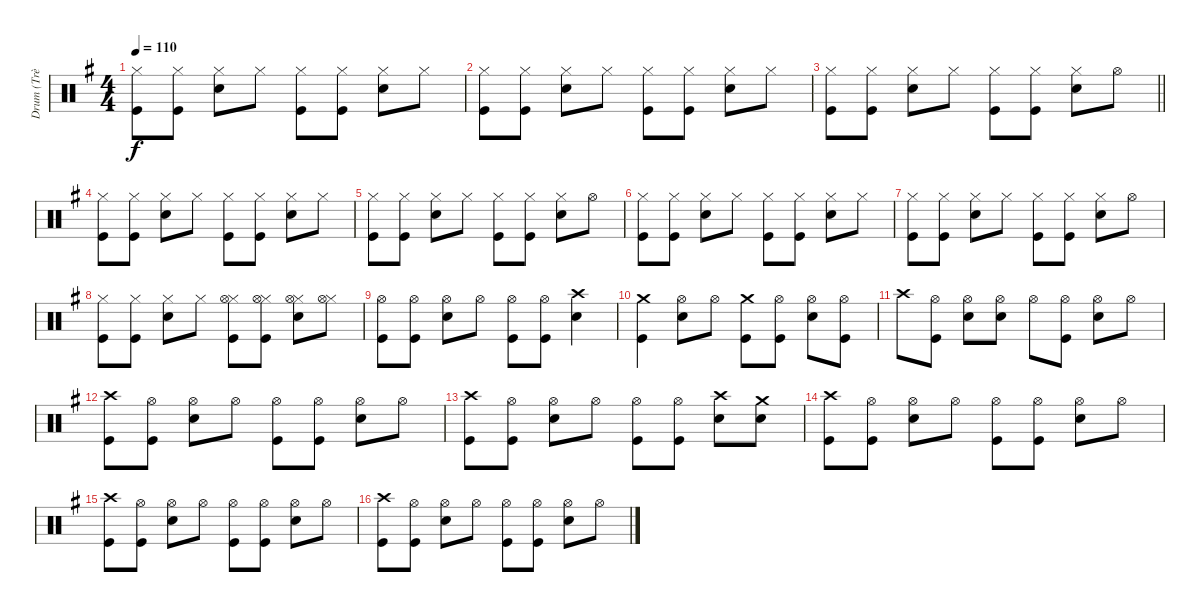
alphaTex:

\track ("Drum (Trè Cool)" "Drum (Trè ") {instrument percussion}
\staff {score}
\articulation defaults
\ts (4 4)
\tempo 110
\clef neutral
\ks g
("Hi-Hat (closed)" "Kick (hit)").8{dy f} ("Hi-Hat (closed)" "Kick (hit)").8 ("Hi-Hat (closed)" "Snare (hit) 2").8 "Hi-Hat (closed)".8 ("Hi-Hat (closed)" "Kick (hit)").8 ("Hi-Hat (closed)" "Kick (hit)").8 ("Hi-Hat (closed)" "Snare (hit) 2").8 "Hi-Hat (closed)".8 |
("Hi-Hat (closed)" "Kick (hit)").8 ("Hi-Hat (closed)" "Kick (hit)").8 ("Hi-Hat (closed)" "Snare (hit) 2").8 "Hi-Hat (closed)".8 ("Hi-Hat (closed)" "Kick (hit)").8 ("Hi-Hat (closed)" "Kick (hit)").8 ("Hi-Hat (closed)" "Snare (hit) 2").8 "Hi-Hat (closed)".8 |
\barLineRight lightlight
("Hi-Hat (closed)" "Kick (hit)").8 ("Hi-Hat (closed)" "Kick (hit)").8 ("Hi-Hat (closed)" "Snare (hit) 2").8 "Hi-Hat (closed)".8 ("Hi-Hat (closed)" "Kick (hit)").8 ("Hi-Hat (closed)" "Kick (hit)").8 ("Hi-Hat (closed)" "Snare (hit) 2").8 "Hi-Hat (open)".8 |
("Hi-Hat (closed)" "Kick (hit)").8 ("Hi-Hat (closed)" "Kick (hit)").8 ("Hi-Hat (closed)" "Snare (hit) 2").8 "Hi-Hat (closed)".8 ("Hi-Hat (closed)" "Kick (hit)").8 ("Hi-Hat (closed)" "Kick (hit)").8 ("Hi-Hat (closed)" "Snare (hit) 2").8 "Hi-Hat (closed)".8 |
("Hi-Hat (closed)" "Kick (hit)").8 ("Kick (hit)" "Hi-Hat (closed)").8 ("Hi-Hat (closed)" "Snare (hit) 2").8 "Hi-Hat (closed)".8 ("Hi-Hat (closed)" "Kick (hit)").8 ("Hi-Hat (closed)" "Kick (hit)").8 ("Hi-Hat (closed)" "Snare (hit) 2").8 "Hi-Hat (open)".8 |
("Hi-Hat (closed)" "Kick (hit)").8 ("Hi-Hat (closed)" "Kick (hit)").8 ("Hi-Hat (closed)" "Snare (hit) 2").8 "Hi-Hat (closed)".8 ("Hi-Hat (closed)" "Kick (hit)").8 ("Hi-Hat (closed)" "Kick (hit)").8 ("Hi-Hat (closed)" "Snare (hit) 2").8 "Hi-Hat (closed)".8 |
("Hi-Hat (closed)" "Kick (hit)").8 ("Hi-Hat (closed)" "Kick (hit)").8 ("Hi-Hat (closed)" "Snare (hit) 2").8 "Hi-Hat (closed)".8 ("Hi-Hat (closed)" "Kick (hit)").8 ("Hi-Hat (closed)" "Kick (hit)").8 ("Hi-Hat (closed)" "Snare (hit) 2").8 "Hi-Hat (open)".8 |
("Kick (hit)" "Hi-Hat (closed)").8 ("Hi-Hat (closed)" "Kick (hit)").8 ("Hi-Hat (closed)" "Snare (hit) 2").8 "Hi-Hat (closed)".8 ("Hi-Hat (closed)" "Kick (hit)" "Hi-Hat (open)").8 ("Hi-Hat (closed)" "Kick (hit)" "Hi-Hat (open)").8 ("Hi-Hat (closed)" "Snare (hit) 2" "Hi-Hat (open)").8 ("Hi-Hat (closed)" "Hi-Hat (open)").8 |
("Hi-Hat (open)" "Kick (hit)").8 ("Hi-Hat (open)" "Kick (hit)").8 ("Hi-Hat (open)" "Snare (hit) 2").8 "Hi-Hat (open)".8 ("Hi-Hat (open)" "Kick (hit)").8 ("Hi-Hat (open)" "Kick (hit)").8 ("Crash high (hit)" "Snare (hit) 2").4 |
("Crash medium (hit)" "Kick (hit)").4 ("Hi-Hat (open)" "Snare (hit) 2").8 "Hi-Hat (open)".8 ("Crash medium (hit)" "Kick (hit)").8 ("Hi-Hat (open)" "Kick (hit)").8 ("Hi-Hat (open)" "Snare (hit) 2").8 ("Hi-Hat (open)" "Kick (hit)").8 |
"Crash high (hit)".8 ("Kick (hit)" "Hi-Hat (open)").8 ("Hi-Hat (open)" "Snare (hit) 2").8 ("Hi-Hat (open)" "Snare (hit) 2").8 "Hi-Hat (open)".8 ("Hi-Hat (open)" "Kick (hit)").8 ("Hi-Hat (open)" "Snare (hit) 2").8 "Hi-Hat (open)".8 |
("Crash high (hit)" "Kick (hit)").8 ("Hi-Hat (open)" "Kick (hit)").8 ("Hi-Hat (open)" "Snare (hit) 2").8 "Hi-Hat (open)".8 ("Hi-Hat (open)" "Kick (hit)").8 ("Hi-Hat (open)" "Kick (hit)").8 ("Hi-Hat (open)" "Snare (hit) 2").8 "Hi-Hat (open)".8 |
("Crash high (hit)" "Kick (hit)").8 ("Hi-Hat (open)" "Kick (hit)").8 ("Hi-Hat (open)" "Snare (hit) 2").8 "Hi-Hat (open)".8 ("Hi-Hat (open)" "Kick (hit)").8 ("Hi-Hat (open)" "Kick (hit)").8 ("Crash high (hit)" "Snare (hit) 2").8 ("Crash medium (hit)" "Snare (hit) 2").8 |
("Crash high (hit)" "Kick (hit)").8 ("Kick (hit)" "Hi-Hat (open)").8 ("Hi-Hat (open)" "Snare (hit) 2").8 "Hi-Hat (open)".8 ("Kick (hit)" "Hi-Hat (open)").8 ("Hi-Hat (open)" "Kick (hit)").8 ("Hi-Hat (open)" "Snare (hit) 2").8 "Hi-Hat (open)".8 |
("Crash high (hit)" "Kick (hit)").8 ("Hi-Hat (open)" "Kick (hit)").8 ("Hi-Hat (open)" "Snare (hit) 2").8 "Hi-Hat (open)".8 ("Hi-Hat (open)" "Kick (hit)").8 ("Hi-Hat (open)" "Kick (hit)").8 ("Hi-Hat (open)" "Snare (hit) 2").8 "Hi-Hat (open)".8 |
("Crash high (hit)" "Kick (hit)").8 ("Kick (hit)" "Hi-Hat (open)").8 ("Hi-Hat (open)" "Snare (hit) 2").8 "Hi-Hat (open)".8 ("Hi-Hat (open)" "Kick (hit)").8 ("Hi-Hat (open)" "Kick (hit)").8 ("Hi-Hat (open)" "Snare (hit) 2").8 "Hi-Hat (open)".8
